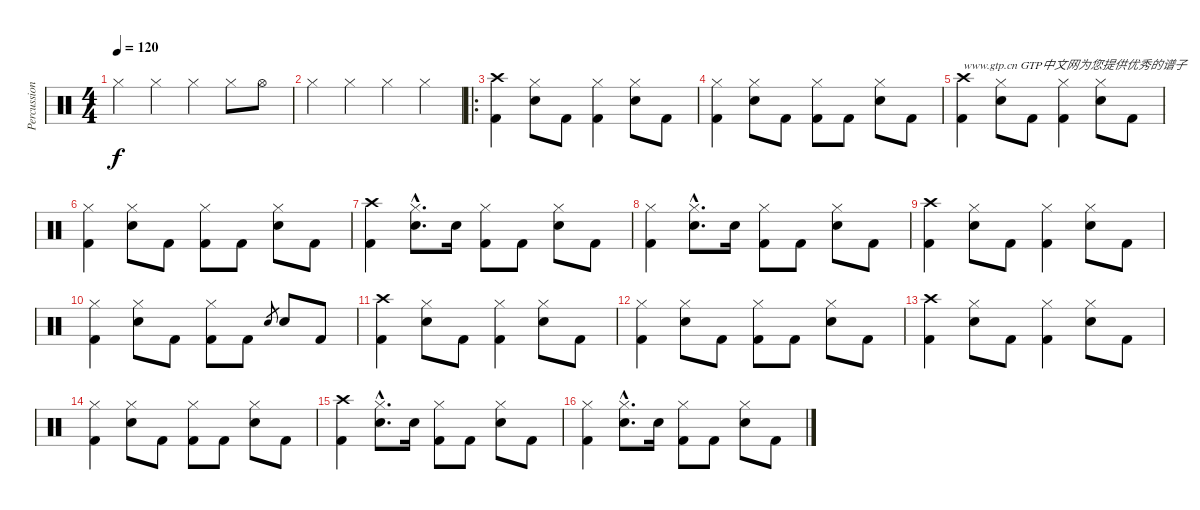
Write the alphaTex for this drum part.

\track ("Percussions" "Percussion") {instrument percussion}
\staff {score}
\articulation defaults
\ts (4 4)
\tempo 120
\clef neutral
\ks c "Hi-Hat (closed)".4{dy f} "Hi-Hat (closed)".4 "Hi-Hat (closed)".4 "Hi-Hat (closed)".8 "Hi-Hat (open)".8
|
"Hi-Hat (closed)".4 "Hi-Hat (closed)".4 "Hi-Hat (closed)".4 "Hi-Hat (closed)".4 |
\ro
("Crash high (hit)" "Kick (hit) 2").4 ("Hi-Hat (closed)" "Electric Snare (hit)").8 "Kick (hit) 2".8 ("Hi-Hat (closed)" "Kick (hit) 2").4 ("Hi-Hat (closed)" "Electric Snare (hit)").8 "Kick (hit) 2".8 |
("Hi-Hat (closed)" "Kick (hit) 2").4 ("Hi-Hat (closed)" "Electric Snare (hit)").8 "Kick (hit) 2".8 ("Hi-Hat (closed)" "Kick (hit) 2").8 "Kick (hit) 2".8 ("Hi-Hat (closed)" "Electric Snare (hit)").8 "Kick (hit) 2".8 |
("Crash high (hit)" "Kick (hit) 2").4{txt "www.gtp.cn GTP中文网为您提供优秀的谱子"} ("Hi-Hat (closed)" "Electric Snare (hit)").8 "Kick (hit) 2".8 ("Hi-Hat (closed)" "Kick (hit) 2").4 ("Hi-Hat (closed)" "Electric Snare (hit)").8 "Kick (hit) 2".8 |
("Hi-Hat (closed)" "Kick (hit) 2").4 ("Hi-Hat (closed)" "Electric Snare (hit)").8 "Kick (hit) 2".8 ("Hi-Hat (closed)" "Kick (hit) 2").8 "Kick (hit) 2".8 ("Hi-Hat (closed)" "Electric Snare (hit)").8 "Kick (hit) 2".8 |
("Crash high (hit)" "Kick (hit) 2").4 ("Hi-Hat (closed)"{hac} "Electric Snare (hit)"{hac}).8{d} "Electric Snare (hit)".16 ("Hi-Hat (closed)" "Kick (hit) 2").8 "Kick (hit) 2".8 ("Hi-Hat (closed)" "Electric Snare (hit)").8 "Kick (hit) 2".8 |
("Hi-Hat (closed)" "Kick (hit) 2").4 ("Hi-Hat (closed)"{hac} "Electric Snare (hit)"{hac}).8{d} "Electric Snare (hit)".16 ("Hi-Hat (closed)" "Kick (hit) 2").8 "Kick (hit) 2".8 ("Hi-Hat (closed)" "Electric Snare (hit)").8 "Kick (hit) 2".8 |
("Crash high (hit)" "Kick (hit) 2").4 ("Hi-Hat (closed)" "Electric Snare (hit)").8 "Kick (hit) 2".8 ("Hi-Hat (closed)" "Kick (hit) 2").4 ("Hi-Hat (closed)" "Electric Snare (hit)").8 "Kick (hit) 2".8 |
("Hi-Hat (closed)" "Kick (hit) 2").4 ("Hi-Hat (closed)" "Electric Snare (hit)").8 "Kick (hit) 2".8 ("Hi-Hat (closed)" "Kick (hit) 2").8 "Kick (hit) 2".8 "Electric Snare (hit)".8{gr} "Electric Snare (hit)".8 "Kick (hit) 2".8 |
("Crash high (hit)" "Kick (hit) 2").4 ("Hi-Hat (closed)" "Electric Snare (hit)").8 "Kick (hit) 2".8 ("Hi-Hat (closed)" "Kick (hit) 2").4 ("Hi-Hat (closed)" "Electric Snare (hit)").8 "Kick (hit) 2".8 |
("Hi-Hat (closed)" "Kick (hit) 2").4 ("Hi-Hat (closed)" "Electric Snare (hit)").8 "Kick (hit) 2".8 ("Hi-Hat (closed)" "Kick (hit) 2").8 "Kick (hit) 2".8 ("Hi-Hat (closed)" "Electric Snare (hit)").8 "Kick (hit) 2".8 |
("Crash high (hit)" "Kick (hit) 2").4 ("Hi-Hat (closed)" "Electric Snare (hit)").8 "Kick (hit) 2".8 ("Hi-Hat (closed)" "Kick (hit) 2").4 ("Hi-Hat (closed)" "Electric Snare (hit)").8 "Kick (hit) 2".8 |
("Hi-Hat (closed)" "Kick (hit) 2").4 ("Hi-Hat (closed)" "Electric Snare (hit)").8 "Kick (hit) 2".8 ("Hi-Hat (closed)" "Kick (hit) 2").8 "Kick (hit) 2".8 ("Hi-Hat (closed)" "Electric Snare (hit)").8 "Kick (hit) 2".8 |
("Crash high (hit)" "Kick (hit) 2").4 ("Hi-Hat (closed)"{hac} "Electric Snare (hit)"{hac}).8{d} "Electric Snare (hit)".16 ("Hi-Hat (closed)" "Kick (hit) 2").8 "Kick (hit) 2".8 ("Hi-Hat (closed)" "Electric Snare (hit)").8 "Kick (hit) 2".8 |
("Hi-Hat (closed)" "Kick (hit) 2").4 ("Hi-Hat (closed)"{hac} "Electric Snare (hit)"{hac}).8{d} "Electric Snare (hit)".16 ("Hi-Hat (closed)" "Kick (hit) 2").8 "Kick (hit) 2".8 ("Hi-Hat (closed)" "Electric Snare (hit)").8 "Kick (hit) 2".8
